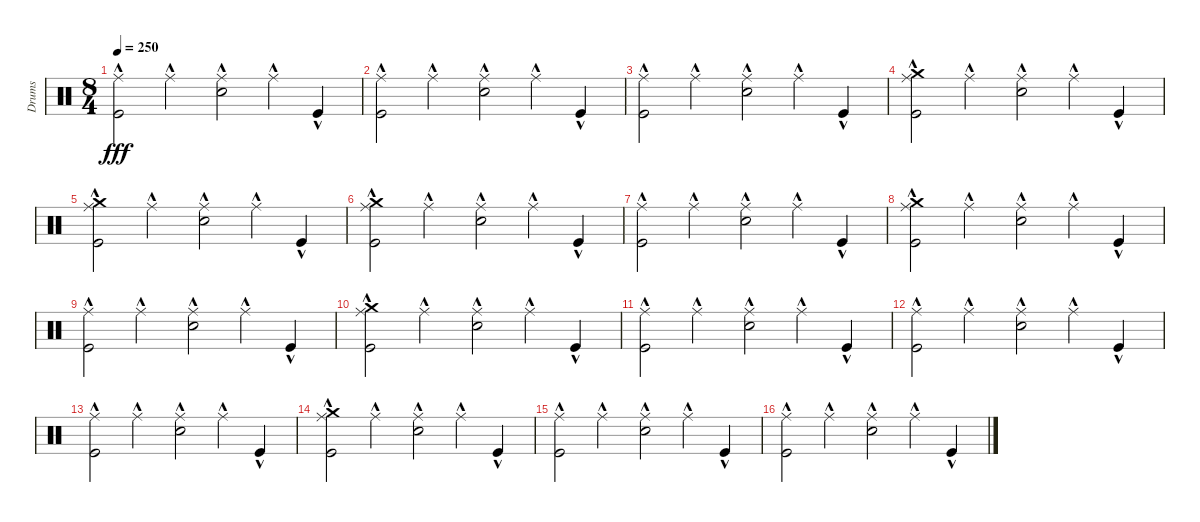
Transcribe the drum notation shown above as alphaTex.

\track ("Drums" "Drums") {instrument percussion}
\staff {score}
\articulation defaults
\ts (8 4)
\tempo 250
\clef neutral
\ks c
("Ride (middle)"{hac} "Kick (hit)"{hac}).2{dy fff} "Ride (middle)"{hac}.2 ("Ride (middle)"{hac} "Snare (hit) 2"{hac}).2 "Ride (middle)"{hac}.4 "Kick (hit)"{hac}.4 |
("Ride (middle)"{hac} "Kick (hit)"{hac}).2 "Ride (middle)"{hac}.2 ("Ride (middle)"{hac} "Snare (hit) 2"{hac}).2 "Ride (middle)"{hac}.4 "Kick (hit)"{hac}.4 |
("Ride (middle)"{hac} "Kick (hit)"{hac}).2 "Ride (middle)"{hac}.2 ("Ride (middle)"{hac} "Snare (hit) 2"{hac}).2 "Ride (middle)"{hac}.4 "Kick (hit)"{hac}.4 |
("Crash medium (hit)" "Ride (middle)"{hac} "Kick (hit)"{hac}).2 "Ride (middle)"{hac}.2 ("Ride (middle)"{hac} "Snare (hit) 2"{hac}).2 "Ride (middle)"{hac}.4 "Kick (hit)"{hac}.4 |
("Crash medium (hit)" "Ride (middle)"{hac} "Kick (hit)"{hac}).2 "Ride (middle)"{hac}.2 ("Ride (middle)"{hac} "Snare (hit) 2"{hac}).2 "Ride (middle)"{hac}.4 "Kick (hit)"{hac}.4 |
("Crash medium (hit)"{hac} "Ride (middle)"{hac} "Kick (hit)"{hac}).2 "Ride (middle)"{hac}.2 ("Ride (middle)"{hac} "Snare (hit) 2"{hac}).2 "Ride (middle)"{hac}.4 "Kick (hit)"{hac}.4 |
("Ride (middle)"{hac} "Kick (hit)"{hac}).2 "Ride (middle)"{hac}.2 ("Ride (middle)"{hac} "Snare (hit) 2"{hac}).2 "Ride (middle)"{hac}.4 "Kick (hit)"{hac}.4 |
("Crash medium (hit)"{hac} "Ride (middle)"{hac} "Kick (hit)"{hac}).2 "Ride (middle)"{hac}.2 ("Ride (middle)"{hac} "Snare (hit) 2"{hac}).2 "Ride (middle)"{hac}.4 "Kick (hit)"{hac}.4 |
("Ride (middle)"{hac} "Kick (hit)"{hac}).2 "Ride (middle)"{hac}.2 ("Ride (middle)"{hac} "Snare (hit) 2"{hac}).2 "Ride (middle)"{hac}.4 "Kick (hit)"{hac}.4 |
("Crash medium (hit)"{hac} "Ride (middle)"{hac} "Kick (hit)"{hac}).2 "Ride (middle)"{hac}.2 ("Ride (middle)"{hac} "Snare (hit) 2"{hac}).2 "Ride (middle)"{hac}.4 "Kick (hit)"{hac}.4 |
("Ride (middle)"{hac} "Kick (hit)"{hac}).2 "Ride (middle)"{hac}.2 ("Ride (middle)"{hac} "Snare (hit) 2"{hac}).2 "Ride (middle)"{hac}.4 "Kick (hit)"{hac}.4 |
("Ride (middle)"{hac} "Kick (hit)"{hac}).2 "Ride (middle)"{hac}.2 ("Ride (middle)"{hac} "Snare (hit) 2"{hac}).2 "Ride (middle)"{hac}.4 "Kick (hit)"{hac}.4 |
("Ride (middle)"{hac} "Kick (hit)"{hac}).2 "Ride (middle)"{hac}.2 ("Ride (middle)"{hac} "Snare (hit) 2"{hac}).2 "Ride (middle)"{hac}.4 "Kick (hit)"{hac}.4 |
("Crash medium (hit)"{hac} "Ride (middle)"{hac} "Kick (hit)"{hac}).2 "Ride (middle)"{hac}.2 ("Ride (middle)"{hac} "Snare (hit) 2"{hac}).2 "Ride (middle)"{hac}.4 "Kick (hit)"{hac}.4 |
("Ride (middle)"{hac} "Kick (hit)"{hac}).2 "Ride (middle)"{hac}.2 ("Ride (middle)"{hac} "Snare (hit) 2"{hac}).2 "Ride (middle)"{hac}.4 "Kick (hit)"{hac}.4 |
("Ride (middle)"{hac} "Kick (hit)"{hac}).2 "Ride (middle)"{hac}.2 ("Ride (middle)"{hac} "Snare (hit) 2"{hac}).2 "Ride (middle)"{hac}.4 "Kick (hit)"{hac}.4
